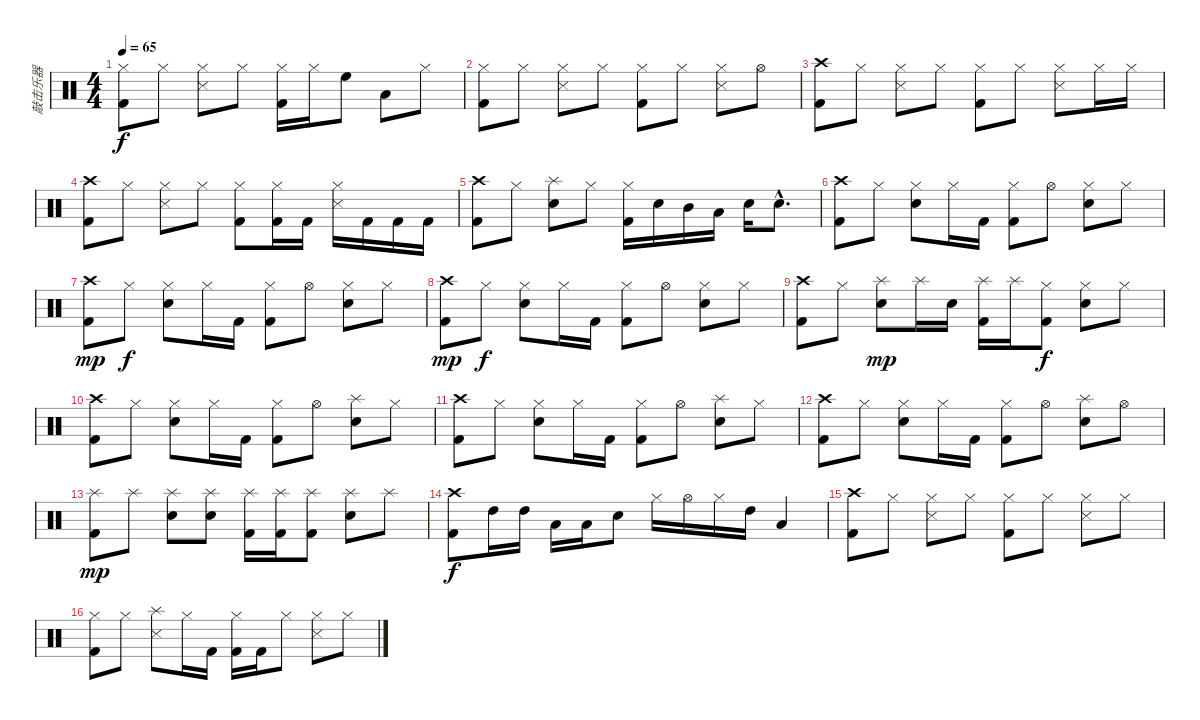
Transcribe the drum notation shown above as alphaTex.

\track ("敲击乐器" "敲击乐器") {instrument percussion}
\staff {score}
\articulation defaults
\ts (4 4)
\tempo 65
\clef neutral
\ks c
("Hi-Hat (closed)" "Kick (hit) 2").8{dy f} "Hi-Hat (closed)".8 ("Hi-Hat (closed)" "Snare (side stick) 3").8 "Hi-Hat (closed)".8 ("Hi-Hat (closed)" "Kick (hit) 2").16 "Hi-Hat (closed)".16 "High Floor Tom (hit)".8 "Low Tom (hit)".8 "Hi-Hat (closed)".8 |
("Hi-Hat (closed)" "Kick (hit) 2").8 "Hi-Hat (closed)".8 ("Hi-Hat (closed)" "Snare (side stick) 3").8 "Hi-Hat (closed)".8 ("Hi-Hat (closed)" "Kick (hit) 2").8 "Hi-Hat (closed)".8 ("Hi-Hat (closed)" "Snare (side stick) 3").8 "Hi-Hat (open)".8 |
("Crash high (hit)" "Kick (hit) 2").8 "Hi-Hat (closed)".8 ("Hi-Hat (closed)" "Snare (side stick) 3").8 "Hi-Hat (closed)".8 ("Hi-Hat (closed)" "Kick (hit) 2").8 "Hi-Hat (closed)".8 ("Hi-Hat (closed)" "Snare (side stick) 3").8 "Hi-Hat (closed)".16 "Hi-Hat (closed)".16 |
("Crash high (hit)" "Kick (hit) 2").8 "Hi-Hat (closed)".8 ("Hi-Hat (closed)" "Snare (side stick) 3").8 "Hi-Hat (closed)".8 ("Hi-Hat (closed)" "Kick (hit) 2").8 ("Hi-Hat (closed)" "Kick (hit) 2").16 "Kick (hit) 2".16 ("Hi-Hat (closed)" "Snare (side stick) 3").16 "Kick (hit) 2".16 "Kick (hit) 2".16 "Kick (hit) 2".16 |
("Crash high (hit)" "Kick (hit) 2").8 "Hi-Hat (closed)".8 ("Splash (hit)" "Snare (hit) 2").8 "Hi-Hat (closed)".8 ("Hi-Hat (closed)" "Kick (hit) 2").16 "Snare (hit) 2".16 "Mid Tom (hit)".16 "Low Tom (hit)".16 "Snare (hit) 2".16 "Snare (hit) 2"{hac}.8{d} |
("Crash high (hit)" "Kick (hit) 2").8 "Hi-Hat (closed)".8 ("Hi-Hat (closed)" "Snare (hit) 2").8 "Hi-Hat (closed)".16 "Kick (hit) 2".16 ("Hi-Hat (closed)" "Kick (hit) 2").8 "Hi-Hat (open)".8 ("Hi-Hat (closed)" "Snare (hit) 2").8 "Hi-Hat (closed)".8 |
("Crash high (hit)" "Kick (hit) 2").8{dy mp} "Hi-Hat (closed)".8{dy f} ("Hi-Hat (closed)" "Snare (hit) 2").8 "Hi-Hat (closed)".16 "Kick (hit) 2".16 ("Hi-Hat (closed)" "Kick (hit) 2").8 "Hi-Hat (open)".8 ("Hi-Hat (closed)" "Snare (hit) 2").8 "Hi-Hat (closed)".8 |
("Crash high (hit)" "Kick (hit) 2").8{dy mp} "Hi-Hat (closed)".8{dy f} ("Hi-Hat (closed)" "Snare (hit) 2").8 "Hi-Hat (closed)".16 "Kick (hit) 2".16 ("Hi-Hat (closed)" "Kick (hit) 2").8 "Hi-Hat (open)".8 ("Hi-Hat (closed)" "Snare (hit) 2").8 "Hi-Hat (closed)".8 |
("Crash high (hit)" "Kick (hit) 2").8 "Hi-Hat (closed)".8 ("Splash (hit)" "Snare (hit) 2").8{dy mp} "Splash (hit)".16 "Snare (hit) 2".16 ("Splash (hit)" "Kick (hit) 2").16 "Splash (hit)".16 ("Hi-Hat (closed)" "Kick (hit) 2").8{dy f} ("Hi-Hat (closed)" "Snare (hit) 2").8 "Hi-Hat (closed)".8 |
("Crash high (hit)" "Kick (hit) 2").8 "Hi-Hat (closed)".8 ("Hi-Hat (closed)" "Snare (hit) 2").8 "Hi-Hat (closed)".16 "Kick (hit) 2".16 ("Hi-Hat (closed)" "Kick (hit) 2").8 "Hi-Hat (open)".8 ("Splash (hit)" "Snare (hit) 2").8 "Hi-Hat (closed)".8 |
("Crash high (hit)" "Kick (hit) 2").8 "Hi-Hat (closed)".8 ("Hi-Hat (closed)" "Snare (hit) 2").8 "Hi-Hat (closed)".16 "Kick (hit) 2".16 ("Hi-Hat (closed)" "Kick (hit) 2").8 "Hi-Hat (open)".8 ("Splash (hit)" "Snare (hit) 2").8 "Hi-Hat (closed)".8 |
("Crash high (hit)" "Kick (hit) 2").8 "Hi-Hat (closed)".8 ("Hi-Hat (closed)" "Snare (hit) 2").8 "Hi-Hat (closed)".16 "Kick (hit) 2".16 ("Hi-Hat (closed)" "Kick (hit) 2").8 "Hi-Hat (open)".8 ("Splash (hit)" "Snare (hit) 2").8 "Hi-Hat (open)".8 |
("Splash (hit)" "Kick (hit) 2").8{dy mp} "Splash (hit)".8 ("Splash (hit)" "Snare (hit) 2").8 ("Splash (hit)" "Snare (hit) 2").8 ("Splash (hit)" "Kick (hit) 2").16 ("Splash (hit)" "Kick (hit) 2").16 ("Splash (hit)" "Kick (hit) 2").8 ("Splash (hit)" "Snare (hit) 2").8 "Splash (hit)".8 |
("Crash high (hit)" "Kick (hit) 2").8{dy f} "High Tom (hit)".16 "High Tom (hit)".16 "Low Tom (hit)".16 "Low Tom (hit)".16 "Snare (hit) 2".8 "Hi-Hat (closed)".16 "Hi-Hat (open)".16 "Hi-Hat (closed)".16 "High Tom (hit)".16 "Low Tom (hit)".4 |
("Crash high (hit)" "Kick (hit) 2").8 "Hi-Hat (closed)".8 ("Hi-Hat (closed)" "Snare (side stick) 3").8 "Hi-Hat (closed)".8 ("Hi-Hat (closed)" "Kick (hit) 2").8 "Hi-Hat (closed)".8 ("Hi-Hat (closed)" "Snare (side stick) 3").8 "Hi-Hat (closed)".8 |
("Hi-Hat (closed)" "Kick (hit) 2").8 "Hi-Hat (closed)".8 ("Splash (hit)" "Snare (side stick) 3").8 "Hi-Hat (closed)".16 "Kick (hit) 2".16 ("Hi-Hat (closed)" "Kick (hit) 2").16 "Kick (hit) 2".16 "Hi-Hat (closed)".8 ("Hi-Hat (closed)" "Snare (side stick) 3").8 "Hi-Hat (closed)".8
